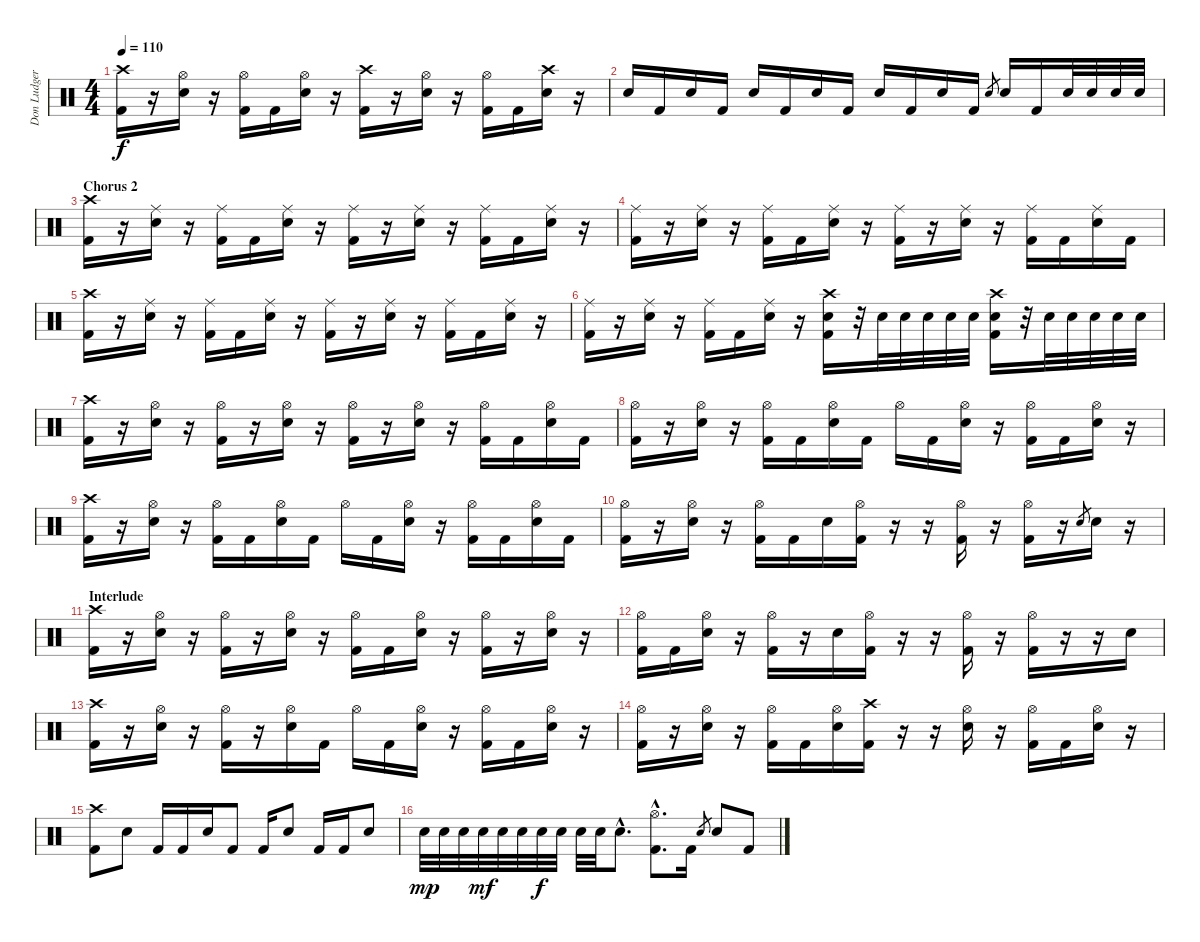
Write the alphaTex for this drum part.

\track ("Don Ludger" "Don Ludger") {instrument percussion}
\staff {score}
\articulation defaults
\ts (4 4)
\tempo 110
\clef neutral
\ks c
("Crash high (hit)" "Kick (hit) 2").16{dy f} r.16 ("Hi-Hat (open)" "Electric Snare (hit)").16 r.16 ("Hi-Hat (open)" "Kick (hit) 2").16 "Kick (hit) 2".16 ("Hi-Hat (open)" "Electric Snare (hit)").16 r.16 ("Crash high (hit)" "Kick (hit) 2").16 r.16 ("Hi-Hat (open)" "Electric Snare (hit)").16 r.16 ("Hi-Hat (open)" "Kick (hit) 2").16 "Kick (hit) 2".16 ("Crash high (hit)" "Electric Snare (hit)").16 r.16 |
"Electric Snare (hit)".16 "Kick (hit) 2".16 "Electric Snare (hit)".16 "Kick (hit) 2".16 "Electric Snare (hit)".16 "Kick (hit) 2".16 "Electric Snare (hit)".16 "Kick (hit) 2".16 "Electric Snare (hit)".16 "Kick (hit) 2".16 "Electric Snare (hit)".16 "Kick (hit) 2".16 "Electric Snare (hit)".8{gr} "Electric Snare (hit)".16 "Kick (hit) 2".16 "Electric Snare (hit)".32 "Electric Snare (hit)".32 "Electric Snare (hit)".32 "Electric Snare (hit)".32 |
\section ("" "Chorus 2")
("Crash high (hit)" "Kick (hit) 2").16 r.16 ("Ride (middle)" "Electric Snare (hit)").16 r.16 ("Ride (middle)" "Kick (hit) 2").16 "Kick (hit) 2".16 ("Ride (middle)" "Electric Snare (hit)").16 r.16 ("Ride (middle)" "Kick (hit) 2").16 r.16 ("Ride (middle)" "Electric Snare (hit)").16 r.16 ("Ride (middle)" "Kick (hit) 2").16 "Kick (hit) 2".16 ("Ride (middle)" "Electric Snare (hit)").16 r.16 |
("Ride (middle)" "Kick (hit) 2").16 r.16 ("Ride (middle)" "Electric Snare (hit)").16 r.16 ("Ride (middle)" "Kick (hit) 2").16 "Kick (hit) 2".16 ("Ride (middle)" "Electric Snare (hit)").16 r.16 ("Ride (middle)" "Kick (hit) 2").16 r.16 ("Ride (middle)" "Electric Snare (hit)").16 r.16 ("Ride (middle)" "Kick (hit) 2").16 "Kick (hit) 2".16 ("Ride (middle)" "Electric Snare (hit)").16 "Kick (hit) 2".16 |
("Crash high (hit)" "Kick (hit) 2").16 r.16 ("Ride (middle)" "Electric Snare (hit)").16 r.16 ("Ride (middle)" "Kick (hit) 2").16 "Kick (hit) 2".16 ("Ride (middle)" "Electric Snare (hit)").16 r.16 ("Ride (middle)" "Kick (hit) 2").16 r.16 ("Ride (middle)" "Electric Snare (hit)").16 r.16 ("Ride (middle)" "Kick (hit) 2").16 "Kick (hit) 2".16 ("Ride (middle)" "Electric Snare (hit)").16 r.16 |
("Ride (middle)" "Kick (hit) 2").16 r.16 ("Ride (middle)" "Electric Snare (hit)").16 r.16 ("Ride (middle)" "Kick (hit) 2").16 "Kick (hit) 2".16 ("Ride (middle)" "Electric Snare (hit)").16 r.16 ("Crash high (hit)" "Electric Snare (hit)" "Kick (hit) 2").16 r.32 "Electric Snare (hit)".32 "Electric Snare (hit)".32 "Electric Snare (hit)".32 "Electric Snare (hit)".32 "Electric Snare (hit)".32 ("Crash high (hit)" "Electric Snare (hit)" "Kick (hit) 2").16 r.32 "Electric Snare (hit)".32 "Electric Snare (hit)".32 "Electric Snare (hit)".32 "Electric Snare (hit)".32 "Electric Snare (hit)".32 |
("Crash high (hit)" "Kick (hit) 2").16 r.16 ("Hi-Hat (open)" "Electric Snare (hit)").16 r.16 ("Hi-Hat (open)" "Kick (hit) 2").16 r.16 ("Hi-Hat (open)" "Electric Snare (hit)").16 r.16 ("Hi-Hat (open)" "Kick (hit) 2").16 r.16 ("Hi-Hat (open)" "Electric Snare (hit)").16 r.16 ("Hi-Hat (open)" "Kick (hit) 2").16 "Kick (hit) 2".16 ("Hi-Hat (open)" "Electric Snare (hit)").16 "Kick (hit) 2".16 |
("Hi-Hat (open)" "Kick (hit) 2").16 r.16 ("Hi-Hat (open)" "Electric Snare (hit)").16 r.16 ("Hi-Hat (open)" "Kick (hit) 2").16 "Kick (hit) 2".16 ("Hi-Hat (open)" "Electric Snare (hit)").16 "Kick (hit) 2".16 "Hi-Hat (open)".16 "Kick (hit) 2".16 ("Hi-Hat (open)" "Electric Snare (hit)").16 r.16 ("Hi-Hat (open)" "Kick (hit) 2").16 "Kick (hit) 2".16 ("Hi-Hat (open)" "Electric Snare (hit)").16 r.16 |
("Crash high (hit)" "Kick (hit) 2").16 r.16 ("Hi-Hat (open)" "Electric Snare (hit)").16 r.16 ("Hi-Hat (open)" "Kick (hit) 2").16 "Kick (hit) 2".16 ("Hi-Hat (open)" "Electric Snare (hit)").16 "Kick (hit) 2".16 "Hi-Hat (open)".16 "Kick (hit) 2".16 ("Hi-Hat (open)" "Electric Snare (hit)").16 r.16 ("Hi-Hat (open)" "Kick (hit) 2").16 "Kick (hit) 2".16 ("Hi-Hat (open)" "Electric Snare (hit)").16 "Kick (hit) 2".16 |
("Hi-Hat (open)" "Kick (hit) 2").16 r.16 ("Hi-Hat (open)" "Electric Snare (hit)").16 r.16 ("Hi-Hat (open)" "Kick (hit) 2").16 "Kick (hit) 2".16 "Electric Snare (hit)".16 ("Hi-Hat (open)" "Kick (hit) 2").16 r.16 r.16 ("Hi-Hat (open)" "Kick (hit) 2").16 r.16 ("Hi-Hat (open)" "Kick (hit) 2").16 r.16 "Electric Snare (hit)".8{gr} "Electric Snare (hit)".16 r.16 |
\section ("" "Interlude")
("Crash high (hit)" "Kick (hit) 2").16 r.16 ("Hi-Hat (open)" "Electric Snare (hit)").16 r.16 ("Hi-Hat (open)" "Kick (hit) 2").16 r.16 ("Hi-Hat (open)" "Electric Snare (hit)").16 r.16 ("Hi-Hat (open)" "Kick (hit) 2").16 "Kick (hit) 2".16 ("Hi-Hat (open)" "Electric Snare (hit)").16 r.16 ("Hi-Hat (open)" "Kick (hit) 2").16 r.16 ("Hi-Hat (open)" "Electric Snare (hit)").16 r.16 |
("Hi-Hat (open)" "Kick (hit) 2").16 "Kick (hit) 2".16 ("Hi-Hat (open)" "Electric Snare (hit)").16 r.16 ("Hi-Hat (open)" "Kick (hit) 2").16 r.16 "Electric Snare (hit)".16 ("Hi-Hat (open)" "Kick (hit) 2").16 r.16 r.16 ("Hi-Hat (open)" "Kick (hit) 2").16 r.16 ("Hi-Hat (open)" "Kick (hit) 2").16 r.16 r.16 "Electric Snare (hit)".16 |
("Crash high (hit)" "Kick (hit) 2").16 r.16 ("Hi-Hat (open)" "Electric Snare (hit)").16 r.16 ("Hi-Hat (open)" "Kick (hit) 2").16 r.16 ("Hi-Hat (open)" "Electric Snare (hit)").16 "Kick (hit) 2".16 "Hi-Hat (open)".16 "Kick (hit) 2".16 ("Hi-Hat (open)" "Electric Snare (hit)").16 r.16 ("Hi-Hat (open)" "Kick (hit) 2").16 "Kick (hit) 2".16 ("Hi-Hat (open)" "Electric Snare (hit)").16 r.16 |
("Hi-Hat (open)" "Kick (hit) 2").16 r.16 ("Hi-Hat (open)" "Electric Snare (hit)").16 r.16 ("Hi-Hat (open)" "Kick (hit) 2").16 "Kick (hit) 2".16 ("Hi-Hat (open)" "Electric Snare (hit)").16 ("Crash high (hit)" "Kick (hit) 2").16 r.16 r.16 ("Hi-Hat (open)" "Electric Snare (hit)").16 r.16 ("Hi-Hat (open)" "Kick (hit) 2").16 "Kick (hit) 2".16 ("Hi-Hat (open)" "Electric Snare (hit)").16 r.16 |
("Crash high (hit)" "Kick (hit) 2").8 "Electric Snare (hit)".8 "Kick (hit) 2".16 "Kick (hit) 2".16 "Electric Snare (hit)".16 "Kick (hit) 2".8 "Kick (hit) 2".16 "Electric Snare (hit)".8 "Kick (hit) 2".16 "Kick (hit) 2".16 "Electric Snare (hit)".8 |
"Electric Snare (hit)".32{dy mp} "Electric Snare (hit)".32 "Electric Snare (hit)".32 "Electric Snare (hit)".32{dy mf} "Electric Snare (hit)".32 "Electric Snare (hit)".32 "Electric Snare (hit)".32{dy f} "Electric Snare (hit)".32 "Electric Snare (hit)".32 "Electric Snare (hit)".32 "Electric Snare (hit)"{hac}.8{d} ("Hi-Hat (open)"{hac} "Kick (hit) 2"{hac}).8{d} "Kick (hit) 2".16 "Electric Snare (hit)".8{gr} "Electric Snare (hit)".8 "Kick (hit) 2".8
